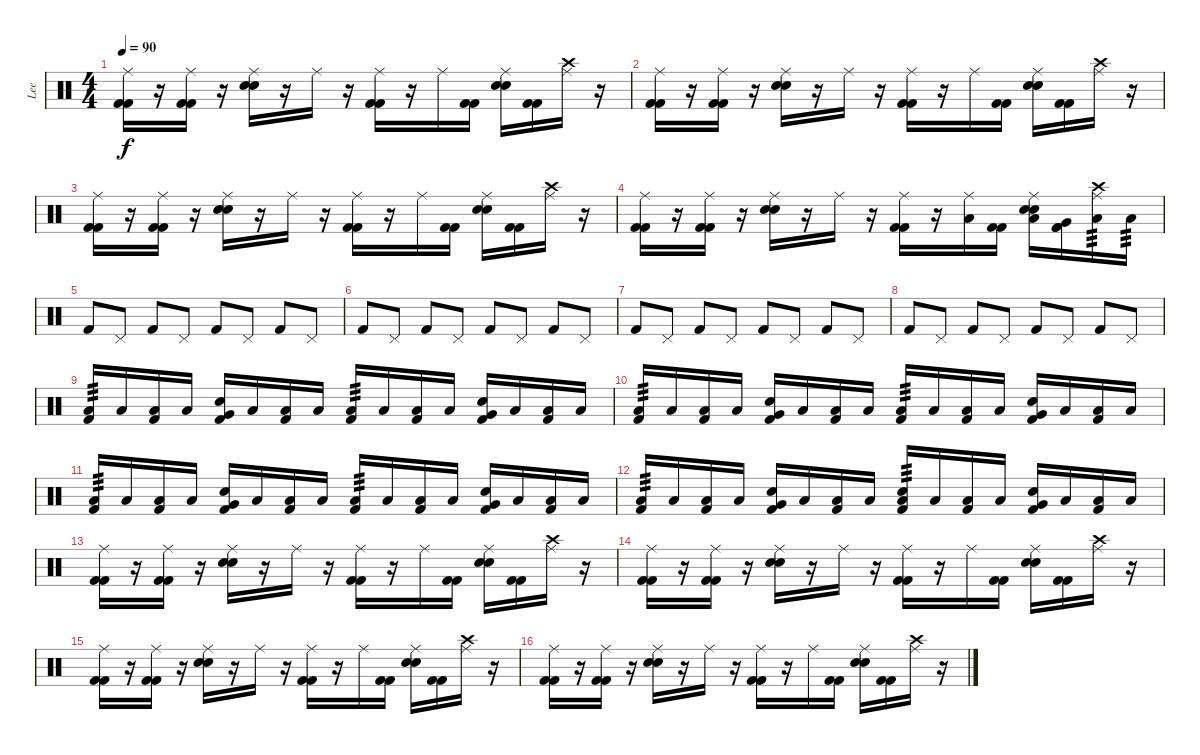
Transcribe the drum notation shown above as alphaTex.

\track ("Lee" "Lee") {instrument percussion}
\staff {score}
\articulation defaults
\ts (4 4)
\tempo 90
\clef neutral
\ks c
("Kick (hit) 2" "Kick (hit) 2" "Ride (middle)").16{dy f} r.16 ("Kick (hit) 2" "Kick (hit) 2" "Ride (middle)").16 r.16 ("Snare (hit) 2" "Snare (hit) 2" "Ride (middle)").16 r.16 "Ride (middle)".16 r.16 ("Kick (hit) 2" "Kick (hit) 2" "Ride (middle)").16 r.16 "Ride (middle)".16 ("Kick (hit) 2" "Kick (hit) 2").16 ("Snare (hit) 2" "Snare (hit) 2" "Ride (middle)").16 ("Kick (hit) 2" "Kick (hit) 2").16 ("Crash high (hit)" "Ride (middle)").16 r.16 |
("Kick (hit) 2" "Kick (hit) 2" "Ride (middle)").16 r.16 ("Kick (hit) 2" "Kick (hit) 2" "Ride (middle)").16 r.16 ("Snare (hit) 2" "Snare (hit) 2" "Ride (middle)").16 r.16 "Ride (middle)".16 r.16 ("Kick (hit) 2" "Kick (hit) 2" "Ride (middle)").16 r.16 "Ride (middle)".16 ("Kick (hit) 2" "Kick (hit) 2").16 ("Snare (hit) 2" "Snare (hit) 2" "Ride (middle)").16 ("Kick (hit) 2" "Kick (hit) 2").16 ("Crash high (hit)" "Ride (middle)").16 r.16 |
("Kick (hit) 2" "Kick (hit) 2" "Ride (middle)").16 r.16 ("Kick (hit) 2" "Kick (hit) 2" "Ride (middle)").16 r.16 ("Snare (hit) 2" "Snare (hit) 2" "Ride (middle)").16 r.16 "Ride (middle)".16 r.16 ("Kick (hit) 2" "Kick (hit) 2" "Ride (middle)").16 r.16 "Ride (middle)".16 ("Kick (hit) 2" "Kick (hit) 2").16 ("Snare (hit) 2" "Snare (hit) 2" "Ride (middle)").16 ("Kick (hit) 2" "Kick (hit) 2").16 ("Crash high (hit)" "Ride (middle)").16 r.16 |
("Kick (hit) 2" "Kick (hit) 2" "Ride (middle)").16 r.16 ("Kick (hit) 2" "Kick (hit) 2" "Ride (middle)").16 r.16 ("Snare (hit) 2" "Snare (hit) 2" "Ride (middle)").16 r.16 "Ride (middle)".16 r.16 ("Kick (hit) 2" "Kick (hit) 2" "Ride (middle)").16 r.16 ("Low Floor Tom (hit)" "Ride (middle)").16 ("Kick (hit) 2" "Kick (hit) 2").16 ("Low Floor Tom (hit)" "Snare (hit) 2" "Snare (hit) 2" "Ride (middle)").16 ("Very Low Tom (hit)" "Kick (hit) 2" "Kick (hit) 2").16 ("Low Floor Tom (hit)" "Crash high (hit)" "Ride (middle)").16{tp 3} "Low Floor Tom (hit)".16{tp 3} |
"Kick (hit) 2".8 "Pedal Hi-Hat (hit)".8 "Kick (hit) 2".8 "Pedal Hi-Hat (hit)".8 "Kick (hit) 2".8 "Pedal Hi-Hat (hit)".8 "Kick (hit) 2".8 "Pedal Hi-Hat (hit)".8 |
"Kick (hit) 2".8 "Pedal Hi-Hat (hit)".8 "Kick (hit) 2".8 "Pedal Hi-Hat (hit)".8 "Kick (hit) 2".8 "Pedal Hi-Hat (hit)".8 "Kick (hit) 2".8 "Pedal Hi-Hat (hit)".8 |
"Kick (hit) 2".8 "Pedal Hi-Hat (hit)".8 "Kick (hit) 2".8 "Pedal Hi-Hat (hit)".8 "Kick (hit) 2".8 "Pedal Hi-Hat (hit)".8 "Kick (hit) 2".8 "Pedal Hi-Hat (hit)".8 |
"Kick (hit) 2".8 "Pedal Hi-Hat (hit)".8 "Kick (hit) 2".8 "Pedal Hi-Hat (hit)".8 "Kick (hit) 2".8 "Pedal Hi-Hat (hit)".8 "Kick (hit) 2".8 "Pedal Hi-Hat (hit)".8 |
("Kick (hit) 2" "Low Floor Tom (hit)").16{tp 3} "Low Floor Tom (hit)".16 ("Kick (hit) 2" "Low Floor Tom (hit)").16 "Low Floor Tom (hit)".16 ("Snare (hit) 2" "Kick (hit) 2" "Very Low Tom (hit)").16 "Low Floor Tom (hit)".16 ("Kick (hit) 2" "Low Floor Tom (hit)").16 "Low Floor Tom (hit)".16 ("Kick (hit) 2" "Low Floor Tom (hit)").16{tp 3} "Low Floor Tom (hit)".16 ("Kick (hit) 2" "Low Floor Tom (hit)").16 "Low Floor Tom (hit)".16 ("Snare (hit) 2" "Kick (hit) 2" "Very Low Tom (hit)").16 "Low Floor Tom (hit)".16 ("Kick (hit) 2" "Low Floor Tom (hit)").16 "Low Floor Tom (hit)".16 |
("Kick (hit) 2" "Low Floor Tom (hit)").16{tp 3} "Low Floor Tom (hit)".16 ("Kick (hit) 2" "Low Floor Tom (hit)").16 "Low Floor Tom (hit)".16 ("Snare (hit) 2" "Kick (hit) 2" "Very Low Tom (hit)").16 "Low Floor Tom (hit)".16 ("Kick (hit) 2" "Low Floor Tom (hit)").16 "Low Floor Tom (hit)".16 ("Kick (hit) 2" "Low Floor Tom (hit)").16{tp 3} "Low Floor Tom (hit)".16 ("Kick (hit) 2" "Low Floor Tom (hit)").16 "Low Floor Tom (hit)".16 ("Snare (hit) 2" "Kick (hit) 2" "Very Low Tom (hit)").16 "Low Floor Tom (hit)".16 ("Kick (hit) 2" "Low Floor Tom (hit)").16 "Low Floor Tom (hit)".16 |
("Kick (hit) 2" "Low Floor Tom (hit)").16{tp 3} "Low Floor Tom (hit)".16 ("Kick (hit) 2" "Low Floor Tom (hit)").16 "Low Floor Tom (hit)".16 ("Snare (hit) 2" "Kick (hit) 2" "Very Low Tom (hit)").16 "Low Floor Tom (hit)".16 ("Kick (hit) 2" "Low Floor Tom (hit)").16 "Low Floor Tom (hit)".16 ("Kick (hit) 2" "Low Floor Tom (hit)").16{tp 3} "Low Floor Tom (hit)".16 ("Kick (hit) 2" "Low Floor Tom (hit)").16 "Low Floor Tom (hit)".16 ("Snare (hit) 2" "Kick (hit) 2" "Very Low Tom (hit)").16 "Low Floor Tom (hit)".16 ("Kick (hit) 2" "Low Floor Tom (hit)").16 "Low Floor Tom (hit)".16 |
("Kick (hit) 2" "Low Floor Tom (hit)").16{tp 3} "Low Floor Tom (hit)".16 ("Kick (hit) 2" "Low Floor Tom (hit)").16 "Low Floor Tom (hit)".16 ("Snare (hit) 2" "Kick (hit) 2" "Very Low Tom (hit)").16 "Low Floor Tom (hit)".16 ("Kick (hit) 2" "Low Floor Tom (hit)").16 "Low Floor Tom (hit)".16 ("Snare (hit) 2" "Kick (hit) 2" "Low Floor Tom (hit)").16{tp 3} "Low Floor Tom (hit)".16 ("Kick (hit) 2" "Low Floor Tom (hit)").16 "Low Floor Tom (hit)".16 ("Snare (hit) 2" "Kick (hit) 2" "Very Low Tom (hit)").16 "Low Floor Tom (hit)".16 ("Kick (hit) 2" "Low Floor Tom (hit)").16 "Low Floor Tom (hit)".16 |
("Kick (hit) 2" "Kick (hit) 2" "Ride (middle)").16 r.16 ("Kick (hit) 2" "Kick (hit) 2" "Ride (middle)").16 r.16 ("Snare (hit) 2" "Snare (hit) 2" "Ride (middle)").16 r.16 "Ride (middle)".16 r.16 ("Kick (hit) 2" "Kick (hit) 2" "Ride (middle)").16 r.16 "Ride (middle)".16 ("Kick (hit) 2" "Kick (hit) 2").16 ("Snare (hit) 2" "Snare (hit) 2" "Ride (middle)").16 ("Kick (hit) 2" "Kick (hit) 2").16 ("Crash high (hit)" "Ride (middle)").16 r.16 |
("Kick (hit) 2" "Kick (hit) 2" "Ride (middle)").16 r.16 ("Kick (hit) 2" "Kick (hit) 2" "Ride (middle)").16 r.16 ("Snare (hit) 2" "Snare (hit) 2" "Ride (middle)").16 r.16 "Ride (middle)".16 r.16 ("Kick (hit) 2" "Kick (hit) 2" "Ride (middle)").16 r.16 "Ride (middle)".16 ("Kick (hit) 2" "Kick (hit) 2").16 ("Snare (hit) 2" "Snare (hit) 2" "Ride (middle)").16 ("Kick (hit) 2" "Kick (hit) 2").16 ("Crash high (hit)" "Ride (middle)").16 r.16 |
("Kick (hit) 2" "Kick (hit) 2" "Ride (middle)").16 r.16 ("Kick (hit) 2" "Kick (hit) 2" "Ride (middle)").16 r.16 ("Snare (hit) 2" "Snare (hit) 2" "Ride (middle)").16 r.16 "Ride (middle)".16 r.16 ("Kick (hit) 2" "Kick (hit) 2" "Ride (middle)").16 r.16 "Ride (middle)".16 ("Kick (hit) 2" "Kick (hit) 2").16 ("Snare (hit) 2" "Snare (hit) 2" "Ride (middle)").16 ("Kick (hit) 2" "Kick (hit) 2").16 ("Crash high (hit)" "Ride (middle)").16 r.16 |
("Kick (hit) 2" "Kick (hit) 2" "Ride (middle)").16 r.16 ("Kick (hit) 2" "Kick (hit) 2" "Ride (middle)").16 r.16 ("Snare (hit) 2" "Snare (hit) 2" "Ride (middle)").16 r.16 "Ride (middle)".16 r.16 ("Kick (hit) 2" "Kick (hit) 2" "Ride (middle)").16 r.16 "Ride (middle)".16 ("Kick (hit) 2" "Kick (hit) 2").16 ("Snare (hit) 2" "Snare (hit) 2" "Ride (middle)").16 ("Kick (hit) 2" "Kick (hit) 2").16 ("Crash high (hit)" "Ride (middle)").16 r.16
